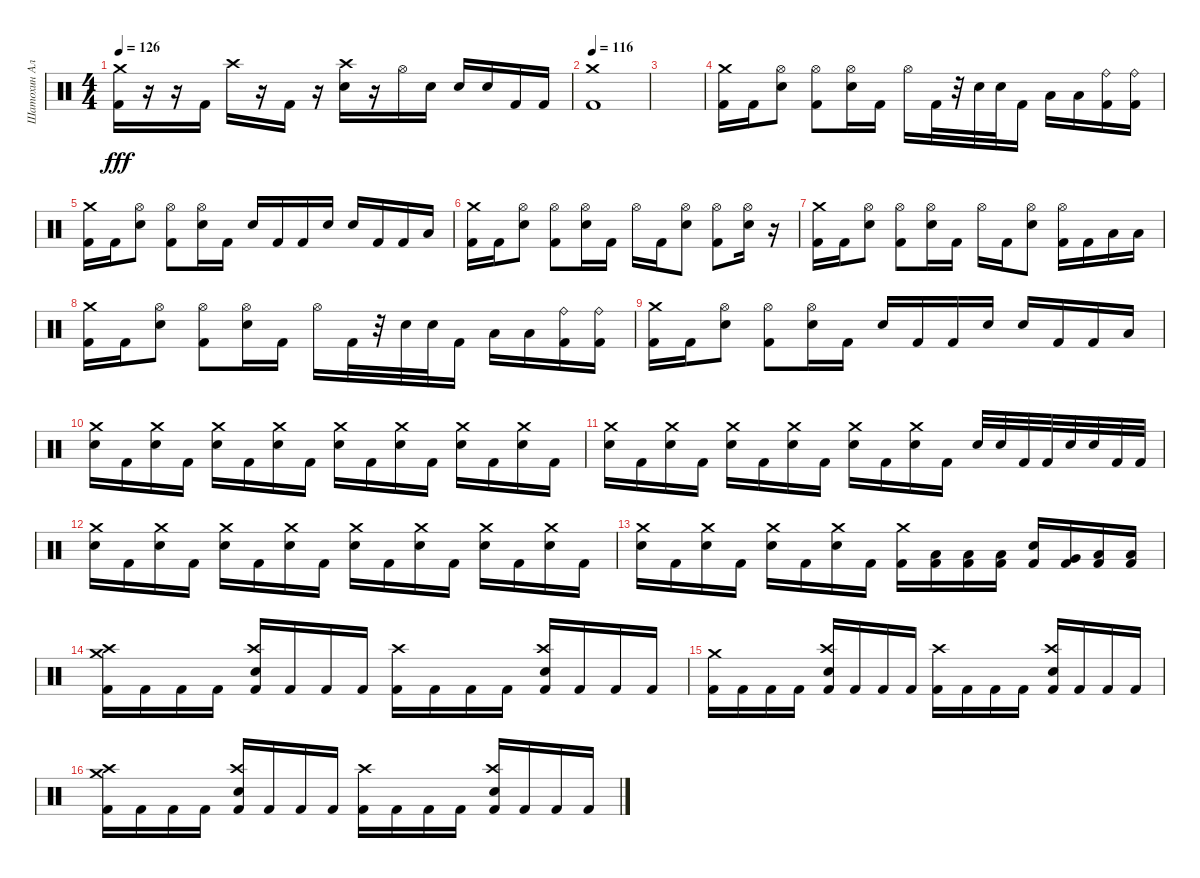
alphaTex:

\track ("Шатохин Алексей" "Шатохин Ал") {instrument percussion}
\staff {score}
\articulation defaults
\ts (4 4)
\tempo 126
\clef neutral
\ks c
("Crash medium (hit)" "Kick (hit) 2").16{dy fff} r.16 r.16 "Kick (hit) 2".16 "Crash high (hit)".16 r.16 "Kick (hit) 2".16 r.16 ("Crash high (hit)" "Electric Snare (hit)").16 r.16 "Hi-Hat (open)".16 "Electric Snare (hit)".16 "Electric Snare (hit)".16 "Electric Snare (hit)".16 "Kick (hit) 2".16 "Kick (hit) 2".16 |
\tempo 116
("Crash medium (hit)" "Kick (hit) 2").1 |
|
("Crash medium (hit)" "Kick (hit) 2").16 "Kick (hit) 2".16 ("Hi-Hat (open)" "Electric Snare (hit)").8 ("Hi-Hat (open)" "Kick (hit) 2").8 ("Hi-Hat (open)" "Electric Snare (hit)").16 "Kick (hit) 2".16 "Hi-Hat (open)".16 "Kick (hit) 2".32 r.32 "Electric Snare (hit)".32 "Electric Snare (hit)".32 "Kick (hit) 2".16 "Low Tom (hit)".16 "Low Tom (hit)".16 ("Ride (bell)" "Kick (hit) 2").16 ("Ride (bell)" "Kick (hit) 2").16 |
("Crash medium (hit)" "Kick (hit) 2").16 "Kick (hit) 2".16 ("Hi-Hat (open)" "Electric Snare (hit)").8 ("Hi-Hat (open)" "Kick (hit) 2").8 ("Hi-Hat (open)" "Electric Snare (hit)").16 "Kick (hit) 2".16 "Electric Snare (hit)".16 "Kick (hit) 2".16 "Kick (hit) 2".16 "Electric Snare (hit)".16 "Electric Snare (hit)".16 "Kick (hit) 2".16 "Kick (hit) 2".16 "Low Tom (hit)".16 |
("Crash medium (hit)" "Kick (hit) 2").16 "Kick (hit) 2".16 ("Hi-Hat (open)" "Electric Snare (hit)").8 ("Hi-Hat (open)" "Kick (hit) 2").8 ("Hi-Hat (open)" "Electric Snare (hit)").16 "Kick (hit) 2".16 "Hi-Hat (open)".16 "Kick (hit) 2".16 ("Hi-Hat (open)" "Electric Snare (hit)").8 ("Hi-Hat (open)" "Kick (hit) 2").8 ("Hi-Hat (open)" "Electric Snare (hit)").16 r.16 |
("Crash medium (hit)" "Kick (hit) 2").16 "Kick (hit) 2".16 ("Hi-Hat (open)" "Electric Snare (hit)").8 ("Hi-Hat (open)" "Kick (hit) 2").8 ("Hi-Hat (open)" "Electric Snare (hit)").16 "Kick (hit) 2".16 "Hi-Hat (open)".16 "Kick (hit) 2".16 ("Hi-Hat (open)" "Electric Snare (hit)").8 ("Hi-Hat (open)" "Kick (hit) 2").16 "Kick (hit) 2".16 "Low Tom (hit)".16 "Low Tom (hit)".16 |
("Crash medium (hit)" "Kick (hit) 2").16 "Kick (hit) 2".16 ("Hi-Hat (open)" "Electric Snare (hit)").8 ("Hi-Hat (open)" "Kick (hit) 2").8 ("Hi-Hat (open)" "Electric Snare (hit)").16 "Kick (hit) 2".16 "Hi-Hat (open)".16 "Kick (hit) 2".32 r.32 "Electric Snare (hit)".32 "Electric Snare (hit)".32 "Kick (hit) 2".16 "Low Tom (hit)".16 "Low Tom (hit)".16 ("Ride (bell)" "Kick (hit) 2").16 ("Ride (bell)" "Kick (hit) 2").16 |
("Crash medium (hit)" "Kick (hit) 2").16 "Kick (hit) 2".16 ("Hi-Hat (open)" "Electric Snare (hit)").8 ("Hi-Hat (open)" "Kick (hit) 2").8 ("Hi-Hat (open)" "Electric Snare (hit)").16 "Kick (hit) 2".16 "Electric Snare (hit)".16 "Kick (hit) 2".16 "Kick (hit) 2".16 "Electric Snare (hit)".16 "Electric Snare (hit)".16 "Kick (hit) 2".16 "Kick (hit) 2".16 "Low Tom (hit)".16 |
("Crash medium (hit)" "Electric Snare (hit)").16 "Kick (hit) 2".16 ("Crash medium (hit)" "Electric Snare (hit)").16 "Kick (hit) 2".16 ("Crash medium (hit)" "Electric Snare (hit)").16 "Kick (hit) 2".16 ("Crash medium (hit)" "Electric Snare (hit)").16 "Kick (hit) 2".16 ("Crash medium (hit)" "Electric Snare (hit)").16 "Kick (hit) 2".16 ("Crash medium (hit)" "Electric Snare (hit)").16 "Kick (hit) 2".16 ("Crash medium (hit)" "Electric Snare (hit)").16 "Kick (hit) 2".16 ("Crash medium (hit)" "Electric Snare (hit)").16 "Kick (hit) 2".16 |
("Crash medium (hit)" "Electric Snare (hit)").16 "Kick (hit) 2".16 ("Crash medium (hit)" "Electric Snare (hit)").16 "Kick (hit) 2".16 ("Crash medium (hit)" "Electric Snare (hit)").16 "Kick (hit) 2".16 ("Crash medium (hit)" "Electric Snare (hit)").16 "Kick (hit) 2".16 ("Crash medium (hit)" "Electric Snare (hit)").16 "Kick (hit) 2".16 ("Crash medium (hit)" "Electric Snare (hit)").16 "Kick (hit) 2".16 "Electric Snare (hit)".32 "Electric Snare (hit)".32 "Kick (hit) 2".32 "Kick (hit) 2".32 "Electric Snare (hit)".32 "Electric Snare (hit)".32 "Kick (hit) 2".32 "Kick (hit) 2".32 |
("Crash medium (hit)" "Electric Snare (hit)").16 "Kick (hit) 2".16 ("Crash medium (hit)" "Electric Snare (hit)").16 "Kick (hit) 2".16 ("Crash medium (hit)" "Electric Snare (hit)").16 "Kick (hit) 2".16 ("Crash medium (hit)" "Electric Snare (hit)").16 "Kick (hit) 2".16 ("Crash medium (hit)" "Electric Snare (hit)").16 "Kick (hit) 2".16 ("Crash medium (hit)" "Electric Snare (hit)").16 "Kick (hit) 2".16 ("Crash medium (hit)" "Electric Snare (hit)").16 "Kick (hit) 2".16 ("Crash medium (hit)" "Electric Snare (hit)").16 "Kick (hit) 2".16 |
("Crash medium (hit)" "Electric Snare (hit)").16 "Kick (hit) 2".16 ("Crash medium (hit)" "Electric Snare (hit)").16 "Kick (hit) 2".16 ("Crash medium (hit)" "Electric Snare (hit)").16 "Kick (hit) 2".16 ("Crash medium (hit)" "Electric Snare (hit)").16 "Kick (hit) 2".16 ("Crash medium (hit)" "Kick (hit) 2").16 ("Low Tom (hit)" "Kick (hit) 2").16 ("Low Tom (hit)" "Kick (hit) 2").16 ("Low Tom (hit)" "Kick (hit) 2").16 ("Electric Snare (hit)" "Kick (hit) 2").16 ("Very Low Tom (hit)" "Kick (hit) 2").16 ("Low Floor Tom (hit)" "Kick (hit) 2").16 ("Low Floor Tom (hit)" "Kick (hit) 2").16 |
("Crash medium (hit)" "Crash high (hit)" "Kick (hit) 2").16 "Kick (hit) 2".16 "Kick (hit) 2".16 "Kick (hit) 2".16 ("Crash high (hit)" "Electric Snare (hit)" "Kick (hit) 2").16 "Kick (hit) 2".16 "Kick (hit) 2".16 "Kick (hit) 2".16 ("Crash high (hit)" "Kick (hit) 2").16 "Kick (hit) 2".16 "Kick (hit) 2".16 "Kick (hit) 2".16 ("Crash high (hit)" "Electric Snare (hit)" "Kick (hit) 2").16 "Kick (hit) 2".16 "Kick (hit) 2".16 "Kick (hit) 2".16 |
("Crash medium (hit)" "Kick (hit) 2").16 "Kick (hit) 2".16 "Kick (hit) 2".16 "Kick (hit) 2".16 ("Crash high (hit)" "Electric Snare (hit)" "Kick (hit) 2").16 "Kick (hit) 2".16 "Kick (hit) 2".16 "Kick (hit) 2".16 ("Crash high (hit)" "Kick (hit) 2").16 "Kick (hit) 2".16 "Kick (hit) 2".16 "Kick (hit) 2".16 ("Crash high (hit)" "Electric Snare (hit)" "Kick (hit) 2").16 "Kick (hit) 2".16 "Kick (hit) 2".16 "Kick (hit) 2".16 |
("Crash medium (hit)" "Crash high (hit)" "Kick (hit) 2").16 "Kick (hit) 2".16 "Kick (hit) 2".16 "Kick (hit) 2".16 ("Crash high (hit)" "Electric Snare (hit)" "Kick (hit) 2").16 "Kick (hit) 2".16 "Kick (hit) 2".16 "Kick (hit) 2".16 ("Crash high (hit)" "Kick (hit) 2").16 "Kick (hit) 2".16 "Kick (hit) 2".16 "Kick (hit) 2".16 ("Crash high (hit)" "Electric Snare (hit)" "Kick (hit) 2").16 "Kick (hit) 2".16 "Kick (hit) 2".16 "Kick (hit) 2".16
